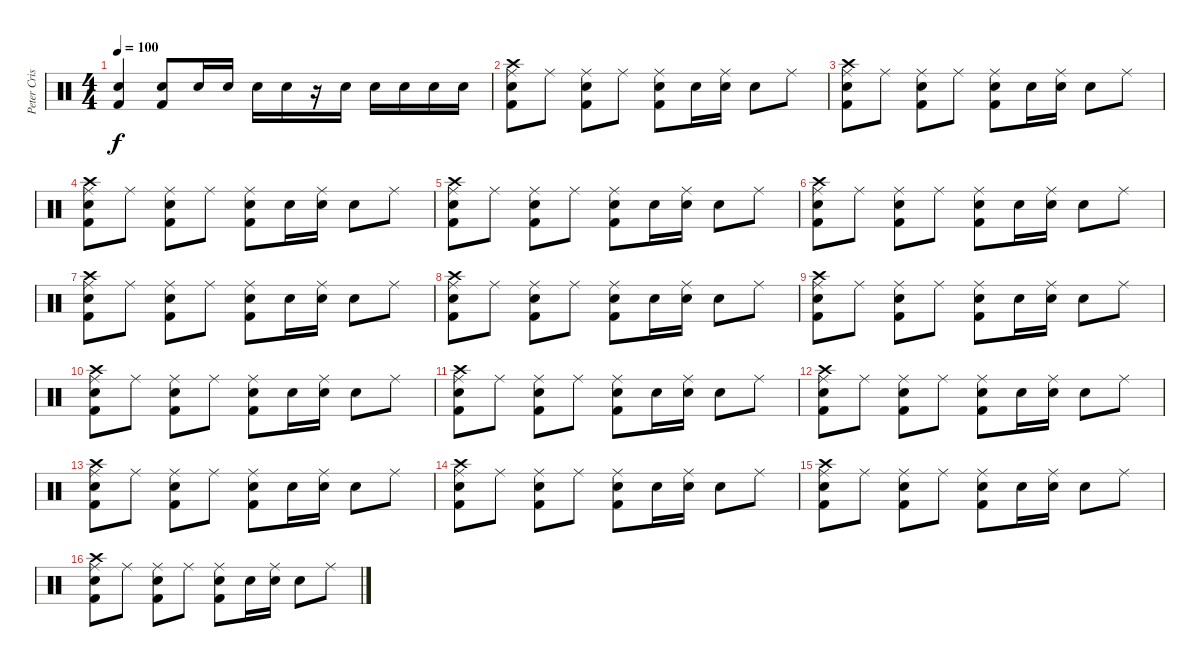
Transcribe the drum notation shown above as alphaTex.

\track ("Peter Criss" "Peter Cris") {instrument percussion}
\staff {score}
\articulation defaults
\ts (4 4)
\tempo 100
\clef neutral
\ks c
("Snare (hit) 2" "Kick (hit) 2").4{dy f} ("Snare (hit) 2" "Kick (hit) 2").8 "Snare (hit) 2".16 "Snare (hit) 2".16 "Snare (hit) 2".16 "Snare (hit) 2".16 r.16 "Snare (hit) 2".16 "Snare (hit) 2".16 "Snare (hit) 2".16 "Snare (hit) 2".16 "Snare (hit) 2".16 |
("Ride (middle)" "Crash high (hit)" "Snare (hit) 2" "Kick (hit) 2").8 "Ride (middle)".8 ("Ride (middle)" "Snare (hit) 2" "Kick (hit) 2").8 "Ride (middle)".8 ("Ride (middle)" "Snare (hit) 2" "Kick (hit) 2").8 "Snare (hit) 2".16 ("Ride (middle)" "Snare (hit) 2").16 "Snare (hit) 2".8 "Ride (middle)".8 |
("Ride (middle)" "Crash high (hit)" "Snare (hit) 2" "Kick (hit) 2").8 "Ride (middle)".8 ("Ride (middle)" "Snare (hit) 2" "Kick (hit) 2").8 "Ride (middle)".8 ("Ride (middle)" "Snare (hit) 2" "Kick (hit) 2").8 "Snare (hit) 2".16 ("Ride (middle)" "Snare (hit) 2").16 "Snare (hit) 2".8 "Ride (middle)".8 |
("Ride (middle)" "Crash high (hit)" "Snare (hit) 2" "Kick (hit) 2").8 "Ride (middle)".8 ("Ride (middle)" "Snare (hit) 2" "Kick (hit) 2").8 "Ride (middle)".8 ("Ride (middle)" "Snare (hit) 2" "Kick (hit) 2").8 "Snare (hit) 2".16 ("Ride (middle)" "Snare (hit) 2").16 "Snare (hit) 2".8 "Ride (middle)".8 |
("Ride (middle)" "Crash high (hit)" "Snare (hit) 2" "Kick (hit) 2").8 "Ride (middle)".8 ("Ride (middle)" "Snare (hit) 2" "Kick (hit) 2").8 "Ride (middle)".8 ("Ride (middle)" "Snare (hit) 2" "Kick (hit) 2").8 "Snare (hit) 2".16 ("Ride (middle)" "Snare (hit) 2").16 "Snare (hit) 2".8 "Ride (middle)".8 |
("Ride (middle)" "Crash high (hit)" "Snare (hit) 2" "Kick (hit) 2").8 "Ride (middle)".8 ("Ride (middle)" "Snare (hit) 2" "Kick (hit) 2").8 "Ride (middle)".8 ("Ride (middle)" "Snare (hit) 2" "Kick (hit) 2").8 "Snare (hit) 2".16 ("Ride (middle)" "Snare (hit) 2").16 "Snare (hit) 2".8 "Ride (middle)".8 |
("Ride (middle)" "Crash high (hit)" "Snare (hit) 2" "Kick (hit) 2").8 "Ride (middle)".8 ("Ride (middle)" "Snare (hit) 2" "Kick (hit) 2").8 "Ride (middle)".8 ("Ride (middle)" "Snare (hit) 2" "Kick (hit) 2").8 "Snare (hit) 2".16 ("Ride (middle)" "Snare (hit) 2").16 "Snare (hit) 2".8 "Ride (middle)".8 |
("Ride (middle)" "Crash high (hit)" "Snare (hit) 2" "Kick (hit) 2").8 "Ride (middle)".8 ("Ride (middle)" "Snare (hit) 2" "Kick (hit) 2").8 "Ride (middle)".8 ("Ride (middle)" "Snare (hit) 2" "Kick (hit) 2").8 "Snare (hit) 2".16 ("Ride (middle)" "Snare (hit) 2").16 "Snare (hit) 2".8 "Ride (middle)".8 |
("Ride (middle)" "Crash high (hit)" "Snare (hit) 2" "Kick (hit) 2").8 "Ride (middle)".8 ("Ride (middle)" "Snare (hit) 2" "Kick (hit) 2").8 "Ride (middle)".8 ("Ride (middle)" "Snare (hit) 2" "Kick (hit) 2").8 "Snare (hit) 2".16 ("Ride (middle)" "Snare (hit) 2").16 "Snare (hit) 2".8 "Ride (middle)".8 |
("Ride (middle)" "Crash high (hit)" "Snare (hit) 2" "Kick (hit) 2").8 "Ride (middle)".8 ("Ride (middle)" "Snare (hit) 2" "Kick (hit) 2").8 "Ride (middle)".8 ("Ride (middle)" "Snare (hit) 2" "Kick (hit) 2").8 "Snare (hit) 2".16 ("Ride (middle)" "Snare (hit) 2").16 "Snare (hit) 2".8 "Ride (middle)".8 |
("Ride (middle)" "Crash high (hit)" "Snare (hit) 2" "Kick (hit) 2").8 "Ride (middle)".8 ("Ride (middle)" "Snare (hit) 2" "Kick (hit) 2").8 "Ride (middle)".8 ("Ride (middle)" "Snare (hit) 2" "Kick (hit) 2").8 "Snare (hit) 2".16 ("Ride (middle)" "Snare (hit) 2").16 "Snare (hit) 2".8 "Ride (middle)".8 |
("Ride (middle)" "Crash high (hit)" "Snare (hit) 2" "Kick (hit) 2").8 "Ride (middle)".8 ("Ride (middle)" "Snare (hit) 2" "Kick (hit) 2").8 "Ride (middle)".8 ("Ride (middle)" "Snare (hit) 2" "Kick (hit) 2").8 "Snare (hit) 2".16 ("Ride (middle)" "Snare (hit) 2").16 "Snare (hit) 2".8 "Ride (middle)".8 |
("Ride (middle)" "Crash high (hit)" "Snare (hit) 2" "Kick (hit) 2").8 "Ride (middle)".8 ("Ride (middle)" "Snare (hit) 2" "Kick (hit) 2").8 "Ride (middle)".8 ("Ride (middle)" "Snare (hit) 2" "Kick (hit) 2").8 "Snare (hit) 2".16 ("Ride (middle)" "Snare (hit) 2").16 "Snare (hit) 2".8 "Ride (middle)".8 |
("Ride (middle)" "Crash high (hit)" "Snare (hit) 2" "Kick (hit) 2").8 "Ride (middle)".8 ("Ride (middle)" "Snare (hit) 2" "Kick (hit) 2").8 "Ride (middle)".8 ("Ride (middle)" "Snare (hit) 2" "Kick (hit) 2").8 "Snare (hit) 2".16 ("Ride (middle)" "Snare (hit) 2").16 "Snare (hit) 2".8 "Ride (middle)".8 |
("Ride (middle)" "Crash high (hit)" "Snare (hit) 2" "Kick (hit) 2").8 "Ride (middle)".8 ("Ride (middle)" "Snare (hit) 2" "Kick (hit) 2").8 "Ride (middle)".8 ("Ride (middle)" "Snare (hit) 2" "Kick (hit) 2").8 "Snare (hit) 2".16 ("Ride (middle)" "Snare (hit) 2").16 "Snare (hit) 2".8 "Ride (middle)".8 |
("Ride (middle)" "Crash high (hit)" "Snare (hit) 2" "Kick (hit) 2").8 "Ride (middle)".8 ("Ride (middle)" "Snare (hit) 2" "Kick (hit) 2").8 "Ride (middle)".8 ("Ride (middle)" "Snare (hit) 2" "Kick (hit) 2").8 "Snare (hit) 2".16 ("Ride (middle)" "Snare (hit) 2").16 "Snare (hit) 2".8 "Ride (middle)".8
